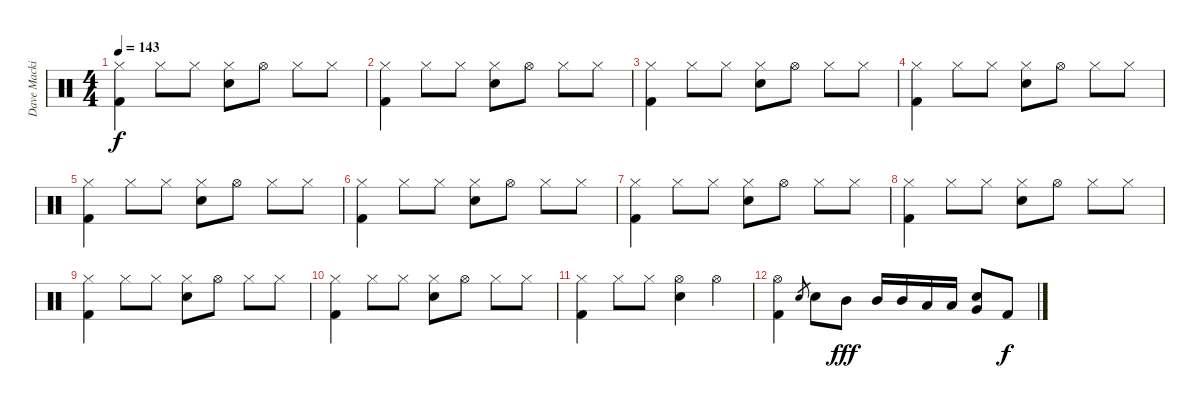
\track ("Dave Mackintosh (Drums)" "Dave Macki") {instrument percussion}
\staff {score}
\articulation defaults
\ts (4 4)
\tempo 143
\clef neutral
\ks c
("Hi-Hat (closed)" "Kick (hit) 2").4{dy f} "Hi-Hat (closed)".8 "Hi-Hat (closed)".8 ("Hi-Hat (closed)" "Electric Snare (hit)").8 "Hi-Hat (open)".8 "Hi-Hat (closed)".8 "Hi-Hat (closed)".8 |
("Hi-Hat (closed)" "Kick (hit) 2").4 "Hi-Hat (closed)".8 "Hi-Hat (closed)".8 ("Hi-Hat (closed)" "Electric Snare (hit)").8 "Hi-Hat (open)".8 "Hi-Hat (closed)".8 "Hi-Hat (closed)".8 |
("Hi-Hat (closed)" "Kick (hit) 2").4 "Hi-Hat (closed)".8 "Hi-Hat (closed)".8 ("Hi-Hat (closed)" "Electric Snare (hit)").8 "Hi-Hat (open)".8 "Hi-Hat (closed)".8 "Hi-Hat (closed)".8 |
("Hi-Hat (closed)" "Kick (hit) 2").4 "Hi-Hat (closed)".8 "Hi-Hat (closed)".8 ("Hi-Hat (closed)" "Electric Snare (hit)").8 "Hi-Hat (open)".8 "Hi-Hat (closed)".8 "Hi-Hat (closed)".8 |
("Hi-Hat (closed)" "Kick (hit) 2").4 "Hi-Hat (closed)".8 "Hi-Hat (closed)".8 ("Hi-Hat (closed)" "Electric Snare (hit)").8 "Hi-Hat (open)".8 "Hi-Hat (closed)".8 "Hi-Hat (closed)".8 |
("Hi-Hat (closed)" "Kick (hit) 2").4 "Hi-Hat (closed)".8 "Hi-Hat (closed)".8 ("Hi-Hat (closed)" "Electric Snare (hit)").8 "Hi-Hat (open)".8 "Hi-Hat (closed)".8 "Hi-Hat (closed)".8 |
("Hi-Hat (closed)" "Kick (hit) 2").4 "Hi-Hat (closed)".8 "Hi-Hat (closed)".8 ("Hi-Hat (closed)" "Electric Snare (hit)").8 "Hi-Hat (open)".8 "Hi-Hat (closed)".8 "Hi-Hat (closed)".8 |
("Hi-Hat (closed)" "Kick (hit) 2").4 "Hi-Hat (closed)".8 "Hi-Hat (closed)".8 ("Hi-Hat (closed)" "Electric Snare (hit)").8 "Hi-Hat (open)".8 "Hi-Hat (closed)".8 "Hi-Hat (closed)".8 |
("Hi-Hat (closed)" "Kick (hit) 2").4 "Hi-Hat (closed)".8 "Hi-Hat (closed)".8 ("Hi-Hat (closed)" "Electric Snare (hit)").8 "Hi-Hat (open)".8 "Hi-Hat (closed)".8 "Hi-Hat (closed)".8 |
("Hi-Hat (closed)" "Kick (hit) 2").4 "Hi-Hat (closed)".8 "Hi-Hat (closed)".8 ("Hi-Hat (closed)" "Electric Snare (hit)").8 "Hi-Hat (open)".8 "Hi-Hat (closed)".8 "Hi-Hat (closed)".8 |
("Hi-Hat (closed)" "Kick (hit) 2").4 "Hi-Hat (closed)".8 "Hi-Hat (closed)".8 ("Hi-Hat (open)" "Electric Snare (hit)").4 "Hi-Hat (open)".4 |
("Hi-Hat (open)" "Kick (hit) 2").4 "Electric Snare (hit)".8{gr} "Electric Snare (hit)".8 "Mid Tom (hit)".8{dy fff} "Mid Tom (hit)".16 "Mid Tom (hit)".16 "Low Tom (hit)".16 "Low Tom (hit)".16 ("Electric Snare (hit)" "Very Low Tom (hit)").8 "Kick (hit) 2".8{dy f}
